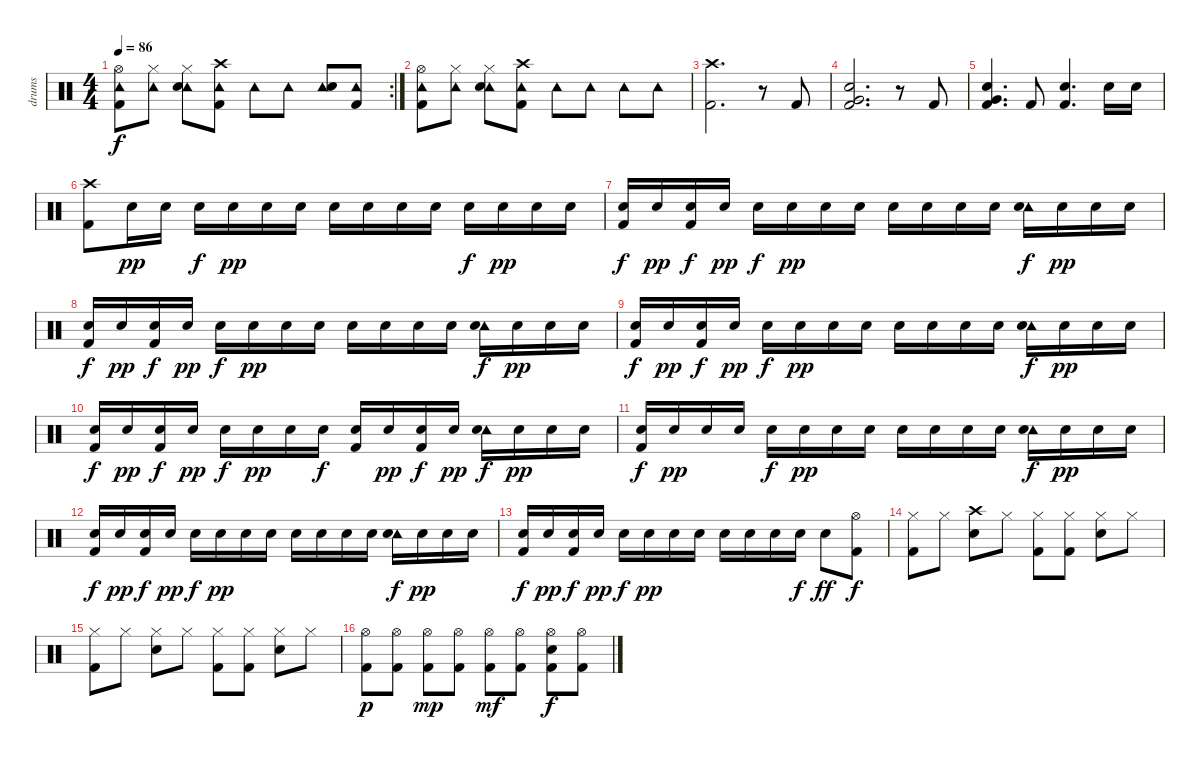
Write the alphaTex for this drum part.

\track ("drums" "drums") {instrument percussion}
\staff {score}
\articulation defaults
\rc 2
\ts (4 4)
\tempo 86
\clef neutral
\ks c
("Hi-Hat (open)" "Tambourine (hit)" "Kick (hit) 2").8{dy f} ("Hi-Hat (closed)" "Tambourine (hit)").8 ("Hi-Hat (closed)" "Tambourine (hit)" "Electric Snare (hit)").8 ("Crash high (hit)" "Tambourine (hit)" "Kick (hit) 2").8 "Tambourine (hit)".8 "Tambourine (hit)".8 ("Tambourine (hit)" "Electric Snare (hit)").8 ("Tambourine (hit)" "Kick (hit) 2").8 |
("Hi-Hat (open)" "Tambourine (hit)" "Kick (hit) 2").8 ("Hi-Hat (closed)" "Tambourine (hit)").8 ("Hi-Hat (closed)" "Tambourine (hit)" "Electric Snare (hit)").8 ("Crash high (hit)" "Tambourine (hit)" "Kick (hit) 2").8 "Tambourine (hit)".8 "Tambourine (hit)".8 "Tambourine (hit)".8 "Tambourine (hit)".8 |
("Crash high (hit)" "Kick (hit) 2").2{d} r.8 "Kick (hit) 2".8 |
("Electric Snare (hit)" "Very Low Tom (hit)" "Kick (hit) 2").2{d} r.8 "Kick (hit) 2".8 |
("Electric Snare (hit)" "Very Low Tom (hit)" "Kick (hit) 2").4{d} "Kick (hit) 2".8 ("Electric Snare (hit)" "Kick (hit) 2").4{d} "Electric Snare (hit)".16 "Electric Snare (hit)".16 |
("Crash high (hit)" "Kick (hit) 2").8 "Electric Snare (hit)".16{dy pp} "Electric Snare (hit)".16 "Electric Snare (hit)".16{dy f} "Electric Snare (hit)".16{dy pp} "Electric Snare (hit)".16 "Electric Snare (hit)".16 "Electric Snare (hit)".16 "Electric Snare (hit)".16 "Electric Snare (hit)".16 "Electric Snare (hit)".16 "Electric Snare (hit)".16{dy f} "Electric Snare (hit)".16{dy pp} "Electric Snare (hit)".16 "Electric Snare (hit)".16 |
("Electric Snare (hit)" "Kick (hit) 2").16{dy f} "Electric Snare (hit)".16{dy pp} ("Electric Snare (hit)" "Kick (hit) 2").16{dy f} "Electric Snare (hit)".16{dy pp} "Electric Snare (hit)".16{dy f} "Electric Snare (hit)".16{dy pp} "Electric Snare (hit)".16 "Electric Snare (hit)".16 "Electric Snare (hit)".16 "Electric Snare (hit)".16 "Electric Snare (hit)".16 "Electric Snare (hit)".16 ("Tambourine (hit)" "Electric Snare (hit)").16{dy f} "Electric Snare (hit)".16{dy pp} "Electric Snare (hit)".16 "Electric Snare (hit)".16 |
("Electric Snare (hit)" "Kick (hit) 2").16{dy f} "Electric Snare (hit)".16{dy pp} ("Electric Snare (hit)" "Kick (hit) 2").16{dy f} "Electric Snare (hit)".16{dy pp} "Electric Snare (hit)".16{dy f} "Electric Snare (hit)".16{dy pp} "Electric Snare (hit)".16 "Electric Snare (hit)".16 "Electric Snare (hit)".16 "Electric Snare (hit)".16 "Electric Snare (hit)".16 "Electric Snare (hit)".16 ("Tambourine (hit)" "Electric Snare (hit)").16{dy f} "Electric Snare (hit)".16{dy pp} "Electric Snare (hit)".16 "Electric Snare (hit)".16 |
("Electric Snare (hit)" "Kick (hit) 2").16{dy f} "Electric Snare (hit)".16{dy pp} ("Electric Snare (hit)" "Kick (hit) 2").16{dy f} "Electric Snare (hit)".16{dy pp} "Electric Snare (hit)".16{dy f} "Electric Snare (hit)".16{dy pp} "Electric Snare (hit)".16 "Electric Snare (hit)".16 "Electric Snare (hit)".16 "Electric Snare (hit)".16 "Electric Snare (hit)".16 "Electric Snare (hit)".16 ("Tambourine (hit)" "Electric Snare (hit)").16{dy f} "Electric Snare (hit)".16{dy pp} "Electric Snare (hit)".16 "Electric Snare (hit)".16 |
("Electric Snare (hit)" "Kick (hit) 2").16{dy f} "Electric Snare (hit)".16{dy pp} ("Electric Snare (hit)" "Kick (hit) 2").16{dy f} "Electric Snare (hit)".16{dy pp} "Electric Snare (hit)".16{dy f} "Electric Snare (hit)".16{dy pp} "Electric Snare (hit)".16 "Electric Snare (hit)".16{dy f} ("Electric Snare (hit)" "Kick (hit) 2").16 "Electric Snare (hit)".16{dy pp} ("Electric Snare (hit)" "Kick (hit) 2").16{dy f} "Electric Snare (hit)".16{dy pp} ("Tambourine (hit)" "Electric Snare (hit)").16{dy f} "Electric Snare (hit)".16{dy pp} "Electric Snare (hit)".16 "Electric Snare (hit)".16 |
("Electric Snare (hit)" "Kick (hit) 2").16{dy f} "Electric Snare (hit)".16{dy pp} "Electric Snare (hit)".16 "Electric Snare (hit)".16 "Electric Snare (hit)".16{dy f} "Electric Snare (hit)".16{dy pp} "Electric Snare (hit)".16 "Electric Snare (hit)".16 "Electric Snare (hit)".16 "Electric Snare (hit)".16 "Electric Snare (hit)".16 "Electric Snare (hit)".16 ("Tambourine (hit)" "Electric Snare (hit)").16{dy f} "Electric Snare (hit)".16{dy pp} "Electric Snare (hit)".16 "Electric Snare (hit)".16 |
("Electric Snare (hit)" "Kick (hit) 2").16{dy f} "Electric Snare (hit)".16{dy pp} ("Electric Snare (hit)" "Kick (hit) 2").16{dy f} "Electric Snare (hit)".16{dy pp} "Electric Snare (hit)".16{dy f} "Electric Snare (hit)".16{dy pp} "Electric Snare (hit)".16 "Electric Snare (hit)".16 "Electric Snare (hit)".16 "Electric Snare (hit)".16 "Electric Snare (hit)".16 "Electric Snare (hit)".16 ("Tambourine (hit)" "Electric Snare (hit)").16{dy f} "Electric Snare (hit)".16{dy pp} "Electric Snare (hit)".16 "Electric Snare (hit)".16 |
("Electric Snare (hit)" "Kick (hit) 2").16{dy f} "Electric Snare (hit)".16{dy pp} ("Electric Snare (hit)" "Kick (hit) 2").16{dy f} "Electric Snare (hit)".16{dy pp} "Electric Snare (hit)".16{dy f} "Electric Snare (hit)".16{dy pp} "Electric Snare (hit)".16 "Electric Snare (hit)".16 "Electric Snare (hit)".16 "Electric Snare (hit)".16 "Electric Snare (hit)".16 "Electric Snare (hit)".16{dy f} "Electric Snare (hit)".8{dy ff} ("Hi-Hat (open)" "Kick (hit) 2").8{dy f} |
("Hi-Hat (closed)" "Kick (hit) 2").8 "Hi-Hat (closed)".8 ("Crash high (hit)" "Electric Snare (hit)").8 "Hi-Hat (closed)".8 ("Hi-Hat (closed)" "Kick (hit) 2").8 ("Hi-Hat (closed)" "Kick (hit) 2").8 ("Hi-Hat (closed)" "Electric Snare (hit)").8 "Hi-Hat (closed)".8 |
("Hi-Hat (closed)" "Kick (hit) 2").8 "Hi-Hat (closed)".8 ("Hi-Hat (closed)" "Electric Snare (hit)").8 "Hi-Hat (closed)".8 ("Hi-Hat (closed)" "Kick (hit) 2").8 ("Hi-Hat (closed)" "Kick (hit) 2").8 ("Hi-Hat (closed)" "Electric Snare (hit)").8 "Hi-Hat (closed)".8 |
("Hi-Hat (open)" "Kick (hit) 2").8{dy p} ("Hi-Hat (open)" "Kick (hit) 2").8 ("Hi-Hat (open)" "Kick (hit) 2").8{dy mp} ("Hi-Hat (open)" "Kick (hit) 2").8 ("Hi-Hat (open)" "Kick (hit) 2").8{dy mf} ("Hi-Hat (open)" "Kick (hit) 2").8 ("Hi-Hat (open)" "Electric Snare (hit)" "Kick (hit) 2").8{dy f} ("Hi-Hat (open)" "Kick (hit) 2").8
